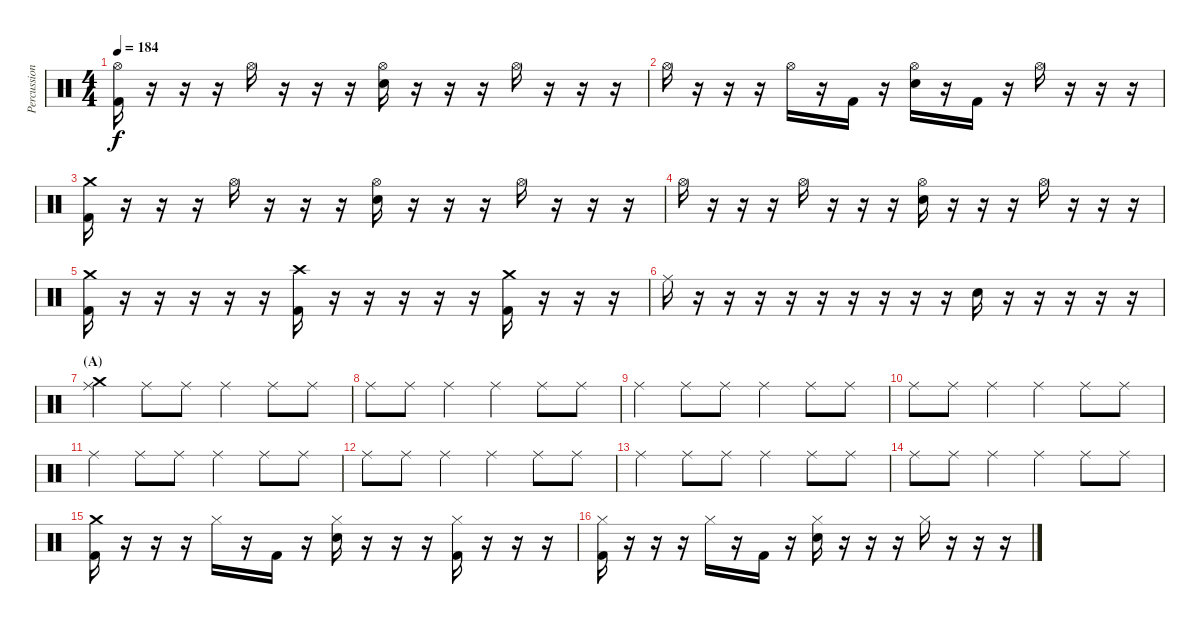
\track ("Percussion" "Percussion") {instrument percussion}
\staff {score}
\articulation defaults
\ts (4 4)
\tempo 184
\clef neutral
\ks c
("Hi-Hat (open)" "Kick (hit) 2").16{dy f} r.16 r.16 r.16 "Hi-Hat (open)".16 r.16 r.16 r.16 ("Hi-Hat (open)" "Electric Snare (hit)").16 r.16 r.16 r.16 "Hi-Hat (open)".16 r.16 r.16 r.16 |
"Hi-Hat (open)".16 r.16 r.16 r.16 "Hi-Hat (open)".16 r.16 "Kick (hit) 2".16 r.16 ("Hi-Hat (open)" "Electric Snare (hit)").16 r.16 "Kick (hit) 2".16 r.16 "Hi-Hat (open)".16 r.16 r.16 r.16 |
("Crash medium (hit)" "Kick (hit) 2").16 r.16 r.16 r.16 "Hi-Hat (open)".16 r.16 r.16 r.16 ("Hi-Hat (open)" "Electric Snare (hit)").16 r.16 r.16 r.16 "Hi-Hat (open)".16 r.16 r.16 r.16 |
"Hi-Hat (open)".16 r.16 r.16 r.16 "Hi-Hat (open)".16 r.16 r.16 r.16 ("Hi-Hat (open)" "Electric Snare (hit)").16 r.16 r.16 r.16 "Hi-Hat (open)".16 r.16 r.16 r.16 |
("Crash medium (hit)" "Kick (hit) 2").16 r.16 r.16 r.16 r.16 r.16 ("Crash high (hit)" "Kick (hit) 2").16 r.16 r.16 r.16 r.16 r.16 ("Crash medium (hit)" "Kick (hit) 2").16 r.16 r.16 r.16 |
"Ride (middle)".16 r.16 r.16 r.16 r.16 r.16 r.16 r.16 r.16 r.16 "Electric Snare (hit)".16 r.16 r.16 r.16 r.16 r.16 |
\section ("" "(A)")
("Crash medium (hit)" "Ride (middle)").4 "Ride (middle)".8 "Ride (middle)".8 "Ride (middle)".4 "Ride (middle)".8 "Ride (middle)".8 |
"Ride (middle)".8 "Ride (middle)".8 "Ride (middle)".4 "Ride (middle)".4 "Ride (middle)".8 "Ride (middle)".8 |
"Ride (middle)".4 "Ride (middle)".8 "Ride (middle)".8 "Ride (middle)".4 "Ride (middle)".8 "Ride (middle)".8 |
"Ride (middle)".8 "Ride (middle)".8 "Ride (middle)".4 "Ride (middle)".4 "Ride (middle)".8 "Ride (middle)".8 |
"Ride (middle)".4 "Ride (middle)".8 "Ride (middle)".8 "Ride (middle)".4 "Ride (middle)".8 "Ride (middle)".8 |
"Ride (middle)".8 "Ride (middle)".8 "Ride (middle)".4 "Ride (middle)".4 "Ride (middle)".8 "Ride (middle)".8 |
"Ride (middle)".4 "Ride (middle)".8 "Ride (middle)".8 "Ride (middle)".4 "Ride (middle)".8 "Ride (middle)".8 |
"Ride (middle)".8 "Ride (middle)".8 "Ride (middle)".4 "Ride (middle)".4 "Ride (middle)".8 "Ride (middle)".8 |
("Crash medium (hit)" "Kick (hit) 2").16 r.16 r.16 r.16 "Hi-Hat (closed)".16 r.16 "Kick (hit) 2".16 r.16 ("Hi-Hat (closed)" "Electric Snare (hit)").16 r.16 r.16 r.16 ("Hi-Hat (closed)" "Kick (hit) 2").16 r.16 r.16 r.16 |
("Hi-Hat (closed)" "Kick (hit) 2").16 r.16 r.16 r.16 "Hi-Hat (closed)".16 r.16 "Kick (hit) 2".16 r.16 ("Hi-Hat (closed)" "Electric Snare (hit)").16 r.16 r.16 r.16 "Hi-Hat (closed)".16 r.16 r.16 r.16
